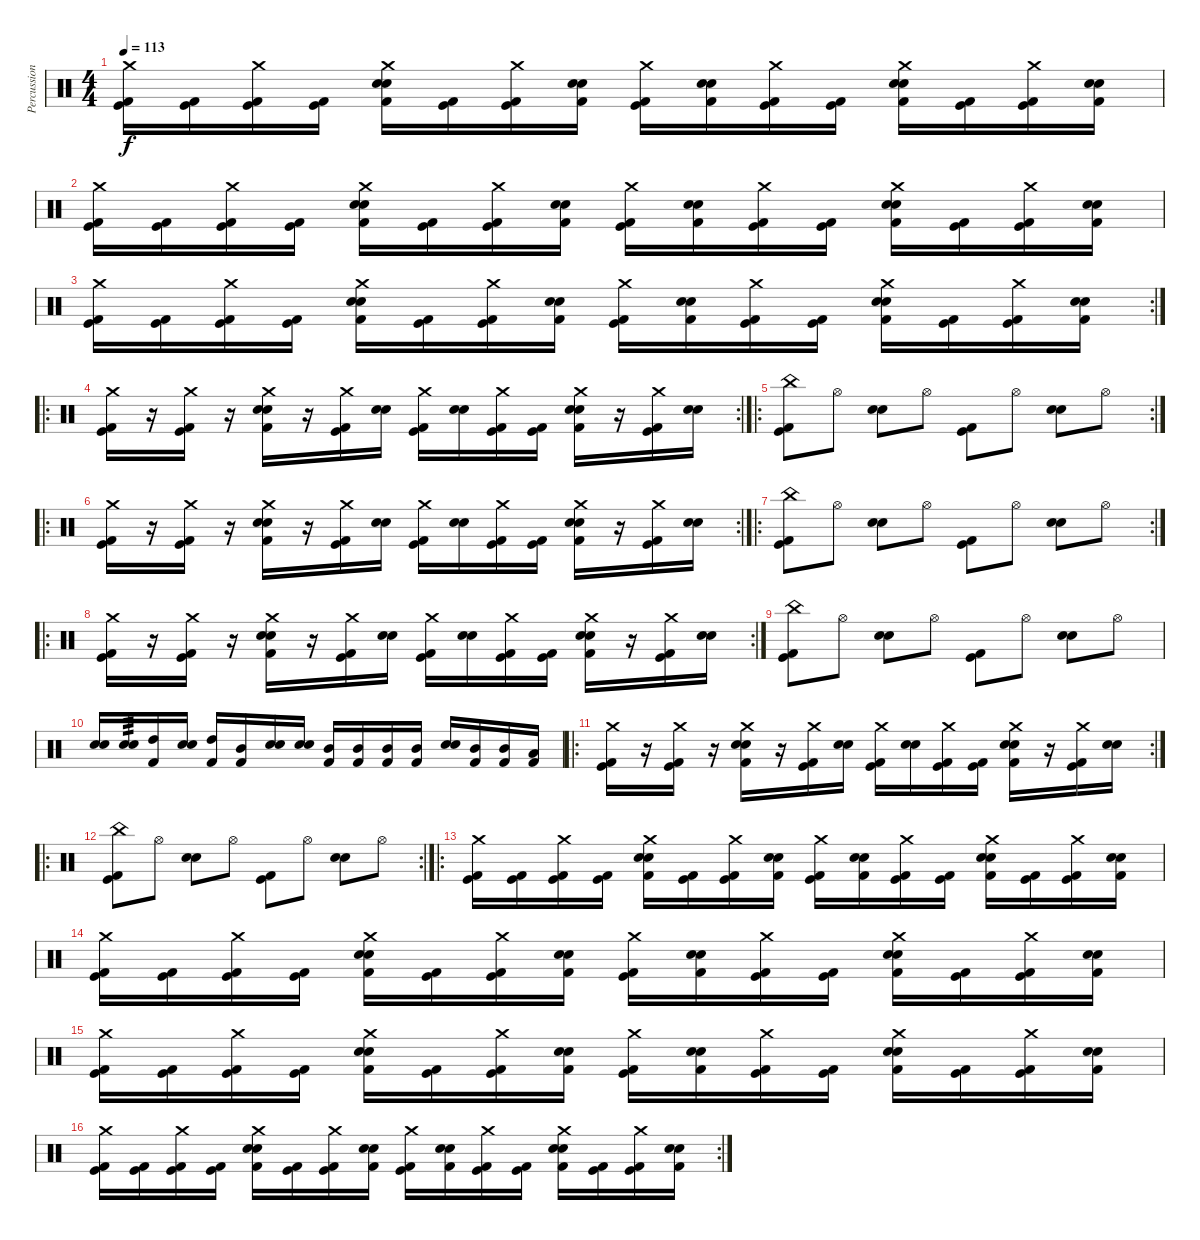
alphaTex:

\track ("Percussion" "Percussion") {instrument percussion}
\staff {score}
\articulation defaults
\ts (4 4)
\tempo 113
\clef neutral
\ks c
("Kick (hit)" "Kick (hit) 2" "Crash medium (hit)").16{dy f} ("Kick (hit)" "Kick (hit) 2").16 ("Kick (hit)" "Kick (hit) 2" "Crash medium (hit)").16 ("Kick (hit)" "Kick (hit) 2").16 ("Snare (hit) 2" "Kick (hit) 2" "Electric Snare (hit)" "Crash medium (hit)").16 ("Kick (hit)" "Kick (hit) 2").16 ("Kick (hit)" "Kick (hit) 2" "Crash medium (hit)").16 ("Snare (hit) 2" "Kick (hit) 2" "Electric Snare (hit)").16 ("Kick (hit)" "Kick (hit) 2" "Crash medium (hit)").16 ("Snare (hit) 2" "Kick (hit) 2" "Electric Snare (hit)").16 ("Kick (hit)" "Kick (hit) 2" "Crash medium (hit)").16 ("Kick (hit)" "Kick (hit) 2").16 ("Snare (hit) 2" "Kick (hit) 2" "Electric Snare (hit)" "Crash medium (hit)").16 ("Kick (hit)" "Kick (hit) 2").16 ("Kick (hit)" "Kick (hit) 2" "Crash medium (hit)").16 ("Snare (hit) 2" "Kick (hit) 2" "Electric Snare (hit)").16 |
("Kick (hit)" "Kick (hit) 2" "Crash medium (hit)").16 ("Kick (hit)" "Kick (hit) 2").16 ("Kick (hit)" "Kick (hit) 2" "Crash medium (hit)").16 ("Kick (hit)" "Kick (hit) 2").16 ("Snare (hit) 2" "Kick (hit) 2" "Electric Snare (hit)" "Crash medium (hit)").16 ("Kick (hit)" "Kick (hit) 2").16 ("Kick (hit)" "Kick (hit) 2" "Crash medium (hit)").16 ("Snare (hit) 2" "Kick (hit) 2" "Electric Snare (hit)").16 ("Kick (hit)" "Kick (hit) 2" "Crash medium (hit)").16 ("Snare (hit) 2" "Kick (hit) 2" "Electric Snare (hit)").16 ("Kick (hit)" "Kick (hit) 2" "Crash medium (hit)").16 ("Kick (hit)" "Kick (hit) 2").16 ("Snare (hit) 2" "Kick (hit) 2" "Electric Snare (hit)" "Crash medium (hit)").16 ("Kick (hit)" "Kick (hit) 2").16 ("Kick (hit)" "Kick (hit) 2" "Crash medium (hit)").16 ("Snare (hit) 2" "Kick (hit) 2" "Electric Snare (hit)").16 |
\rc 2
("Kick (hit)" "Kick (hit) 2" "Crash medium (hit)").16 ("Kick (hit)" "Kick (hit) 2").16 ("Kick (hit)" "Kick (hit) 2" "Crash medium (hit)").16 ("Kick (hit)" "Kick (hit) 2").16 ("Snare (hit) 2" "Kick (hit) 2" "Electric Snare (hit)" "Crash medium (hit)").16 ("Kick (hit)" "Kick (hit) 2").16 ("Kick (hit)" "Kick (hit) 2" "Crash medium (hit)").16 ("Snare (hit) 2" "Kick (hit) 2" "Electric Snare (hit)").16 ("Kick (hit)" "Kick (hit) 2" "Crash medium (hit)").16 ("Snare (hit) 2" "Kick (hit) 2" "Electric Snare (hit)").16 ("Kick (hit)" "Kick (hit) 2" "Crash medium (hit)").16 ("Kick (hit)" "Kick (hit) 2").16 ("Snare (hit) 2" "Kick (hit) 2" "Electric Snare (hit)" "Crash medium (hit)").16 ("Kick (hit)" "Kick (hit) 2").16 ("Kick (hit)" "Kick (hit) 2" "Crash medium (hit)").16 ("Snare (hit) 2" "Kick (hit) 2" "Electric Snare (hit)").16 |
\ro
\rc 2
("Kick (hit) 2" "Kick (hit)" "Crash medium (hit)").16 r.16 ("Kick (hit) 2" "Kick (hit)" "Crash medium (hit)").16 r.16 ("Snare (hit) 2" "Kick (hit) 2" "Electric Snare (hit)" "Crash medium (hit)").16 r.16 ("Kick (hit)" "Kick (hit) 2" "Crash medium (hit)").16 ("Snare (hit) 2" "Electric Snare (hit)").16 ("Kick (hit)" "Kick (hit) 2" "Crash medium (hit)").16 ("Snare (hit) 2" "Electric Snare (hit)").16 ("Kick (hit)" "Kick (hit) 2" "Crash medium (hit)").16 ("Kick (hit)" "Kick (hit) 2").16 ("Snare (hit) 2" "Kick (hit) 2" "Electric Snare (hit)" "Crash medium (hit)").16 r.16 ("Kick (hit)" "Kick (hit) 2" "Crash medium (hit)").16 ("Snare (hit) 2" "Electric Snare (hit)").16 |
\ro
\rc 2
("China (hit)" "Kick (hit) 2" "Kick (hit)").8 "Hi-Hat (open)".8 ("Electric Snare (hit)" "Snare (hit) 2").8 "Hi-Hat (open)".8 ("Kick (hit)" "Kick (hit) 2").8 "Hi-Hat (open)".8 ("Electric Snare (hit)" "Snare (hit) 2").8 "Hi-Hat (open)".8 |
\ro
\rc 2
("Kick (hit) 2" "Kick (hit)" "Crash medium (hit)").16 r.16 ("Kick (hit) 2" "Kick (hit)" "Crash medium (hit)").16 r.16 ("Snare (hit) 2" "Kick (hit) 2" "Electric Snare (hit)" "Crash medium (hit)").16 r.16 ("Kick (hit)" "Kick (hit) 2" "Crash medium (hit)").16 ("Snare (hit) 2" "Electric Snare (hit)").16 ("Kick (hit)" "Kick (hit) 2" "Crash medium (hit)").16 ("Snare (hit) 2" "Electric Snare (hit)").16 ("Kick (hit)" "Kick (hit) 2" "Crash medium (hit)").16 ("Kick (hit)" "Kick (hit) 2").16 ("Snare (hit) 2" "Kick (hit) 2" "Electric Snare (hit)" "Crash medium (hit)").16 r.16 ("Kick (hit)" "Kick (hit) 2" "Crash medium (hit)").16 ("Snare (hit) 2" "Electric Snare (hit)").16 |
\ro
\rc 2
("China (hit)" "Kick (hit) 2" "Kick (hit)").8 "Hi-Hat (open)".8 ("Electric Snare (hit)" "Snare (hit) 2").8 "Hi-Hat (open)".8 ("Kick (hit)" "Kick (hit) 2").8 "Hi-Hat (open)".8 ("Electric Snare (hit)" "Snare (hit) 2").8 "Hi-Hat (open)".8 |
\ro
\rc 2
("Kick (hit) 2" "Kick (hit)" "Crash medium (hit)").16 r.16 ("Kick (hit) 2" "Kick (hit)" "Crash medium (hit)").16 r.16 ("Snare (hit) 2" "Kick (hit) 2" "Electric Snare (hit)" "Crash medium (hit)").16 r.16 ("Kick (hit)" "Kick (hit) 2" "Crash medium (hit)").16 ("Snare (hit) 2" "Electric Snare (hit)").16 ("Kick (hit)" "Kick (hit) 2" "Crash medium (hit)").16 ("Snare (hit) 2" "Electric Snare (hit)").16 ("Kick (hit)" "Kick (hit) 2" "Crash medium (hit)").16 ("Kick (hit)" "Kick (hit) 2").16 ("Snare (hit) 2" "Kick (hit) 2" "Electric Snare (hit)" "Crash medium (hit)").16 r.16 ("Kick (hit)" "Kick (hit) 2" "Crash medium (hit)").16 ("Snare (hit) 2" "Electric Snare (hit)").16 |
("China (hit)" "Kick (hit) 2" "Kick (hit)").8 "Hi-Hat (open)".8 ("Electric Snare (hit)" "Snare (hit) 2").8 "Hi-Hat (open)".8 ("Kick (hit)" "Kick (hit) 2").8 "Hi-Hat (open)".8 ("Electric Snare (hit)" "Snare (hit) 2").8 "Hi-Hat (open)".8 |
("Electric Snare (hit)" "Snare (hit) 2").16 ("Electric Snare (hit)" "Snare (hit) 2").16{tp 3} ("High Tom (hit)" "Kick (hit) 2").16 ("Electric Snare (hit)" "Snare (hit) 2").16 ("High Tom (hit)" "Kick (hit) 2").16 ("Mid Tom (hit)" "Kick (hit) 2").16 ("Electric Snare (hit)" "Snare (hit) 2").16 ("Electric Snare (hit)" "Snare (hit) 2").16 ("Mid Tom (hit)" "Kick (hit) 2").16 ("Mid Tom (hit)" "Kick (hit) 2").16 ("Mid Tom (hit)" "Kick (hit) 2").16 ("Mid Tom (hit)" "Kick (hit) 2").16 ("Electric Snare (hit)" "Snare (hit) 2").16 ("Mid Tom (hit)" "Kick (hit) 2").16 ("Mid Tom (hit)" "Kick (hit) 2").16 ("Low Tom (hit)" "Kick (hit) 2").16 |
\ro
\rc 2
("Kick (hit) 2" "Kick (hit)" "Crash medium (hit)").16 r.16 ("Kick (hit) 2" "Kick (hit)" "Crash medium (hit)").16 r.16 ("Snare (hit) 2" "Kick (hit) 2" "Electric Snare (hit)" "Crash medium (hit)").16 r.16 ("Kick (hit)" "Kick (hit) 2" "Crash medium (hit)").16 ("Snare (hit) 2" "Electric Snare (hit)").16 ("Kick (hit)" "Kick (hit) 2" "Crash medium (hit)").16 ("Snare (hit) 2" "Electric Snare (hit)").16 ("Kick (hit)" "Kick (hit) 2" "Crash medium (hit)").16 ("Kick (hit)" "Kick (hit) 2").16 ("Snare (hit) 2" "Kick (hit) 2" "Electric Snare (hit)" "Crash medium (hit)").16 r.16 ("Kick (hit)" "Kick (hit) 2" "Crash medium (hit)").16 ("Snare (hit) 2" "Electric Snare (hit)").16 |
\ro
\rc 2
("China (hit)" "Kick (hit)" "Kick (hit) 2").8 "Hi-Hat (open)".8 ("Electric Snare (hit)" "Snare (hit) 2").8 "Hi-Hat (open)".8 ("Kick (hit)" "Kick (hit) 2").8 "Hi-Hat (open)".8 ("Electric Snare (hit)" "Snare (hit) 2").8 "Hi-Hat (open)".8 |
\ro
("Kick (hit)" "Kick (hit) 2" "Crash medium (hit)").16 ("Kick (hit)" "Kick (hit) 2").16 ("Kick (hit)" "Kick (hit) 2" "Crash medium (hit)").16 ("Kick (hit)" "Kick (hit) 2").16 ("Snare (hit) 2" "Kick (hit) 2" "Electric Snare (hit)" "Crash medium (hit)").16 ("Kick (hit)" "Kick (hit) 2").16 ("Kick (hit)" "Kick (hit) 2" "Crash medium (hit)").16 ("Snare (hit) 2" "Kick (hit) 2" "Electric Snare (hit)").16 ("Kick (hit)" "Kick (hit) 2" "Crash medium (hit)").16 ("Snare (hit) 2" "Kick (hit) 2" "Electric Snare (hit)").16 ("Kick (hit)" "Kick (hit) 2" "Crash medium (hit)").16 ("Kick (hit)" "Kick (hit) 2").16 ("Snare (hit) 2" "Kick (hit) 2" "Electric Snare (hit)" "Crash medium (hit)").16 ("Kick (hit)" "Kick (hit) 2").16 ("Kick (hit)" "Kick (hit) 2" "Crash medium (hit)").16 ("Snare (hit) 2" "Kick (hit) 2" "Electric Snare (hit)").16 |
("Kick (hit)" "Kick (hit) 2" "Crash medium (hit)").16 ("Kick (hit)" "Kick (hit) 2").16 ("Kick (hit)" "Kick (hit) 2" "Crash medium (hit)").16 ("Kick (hit)" "Kick (hit) 2").16 ("Snare (hit) 2" "Kick (hit) 2" "Electric Snare (hit)" "Crash medium (hit)").16 ("Kick (hit)" "Kick (hit) 2").16 ("Kick (hit)" "Kick (hit) 2" "Crash medium (hit)").16 ("Snare (hit) 2" "Kick (hit) 2" "Electric Snare (hit)").16 ("Kick (hit)" "Kick (hit) 2" "Crash medium (hit)").16 ("Snare (hit) 2" "Kick (hit) 2" "Electric Snare (hit)").16 ("Kick (hit)" "Kick (hit) 2" "Crash medium (hit)").16 ("Kick (hit)" "Kick (hit) 2").16 ("Snare (hit) 2" "Kick (hit) 2" "Electric Snare (hit)" "Crash medium (hit)").16 ("Kick (hit)" "Kick (hit) 2").16 ("Kick (hit)" "Kick (hit) 2" "Crash medium (hit)").16 ("Snare (hit) 2" "Kick (hit) 2" "Electric Snare (hit)").16 |
("Kick (hit)" "Kick (hit) 2" "Crash medium (hit)").16 ("Kick (hit)" "Kick (hit) 2").16 ("Kick (hit)" "Kick (hit) 2" "Crash medium (hit)").16 ("Kick (hit)" "Kick (hit) 2").16 ("Snare (hit) 2" "Kick (hit) 2" "Electric Snare (hit)" "Crash medium (hit)").16 ("Kick (hit)" "Kick (hit) 2").16 ("Kick (hit)" "Kick (hit) 2" "Crash medium (hit)").16 ("Snare (hit) 2" "Kick (hit) 2" "Electric Snare (hit)").16 ("Kick (hit)" "Kick (hit) 2" "Crash medium (hit)").16 ("Snare (hit) 2" "Kick (hit) 2" "Electric Snare (hit)").16 ("Kick (hit)" "Kick (hit) 2" "Crash medium (hit)").16 ("Kick (hit)" "Kick (hit) 2").16 ("Snare (hit) 2" "Kick (hit) 2" "Electric Snare (hit)" "Crash medium (hit)").16 ("Kick (hit)" "Kick (hit) 2").16 ("Kick (hit)" "Kick (hit) 2" "Crash medium (hit)").16 ("Snare (hit) 2" "Kick (hit) 2" "Electric Snare (hit)").16 |
\rc 2
("Kick (hit)" "Kick (hit) 2" "Crash medium (hit)").16 ("Kick (hit)" "Kick (hit) 2").16 ("Kick (hit)" "Kick (hit) 2" "Crash medium (hit)").16 ("Kick (hit)" "Kick (hit) 2").16 ("Snare (hit) 2" "Kick (hit) 2" "Electric Snare (hit)" "Crash medium (hit)").16 ("Kick (hit)" "Kick (hit) 2").16 ("Kick (hit)" "Kick (hit) 2" "Crash medium (hit)").16 ("Snare (hit) 2" "Kick (hit) 2" "Electric Snare (hit)").16 ("Kick (hit)" "Kick (hit) 2" "Crash medium (hit)").16 ("Snare (hit) 2" "Kick (hit) 2" "Electric Snare (hit)").16 ("Kick (hit)" "Kick (hit) 2" "Crash medium (hit)").16 ("Kick (hit)" "Kick (hit) 2").16 ("Snare (hit) 2" "Kick (hit) 2" "Electric Snare (hit)" "Crash medium (hit)").16 ("Kick (hit)" "Kick (hit) 2").16 ("Kick (hit)" "Kick (hit) 2" "Crash medium (hit)").16 ("Snare (hit) 2" "Kick (hit) 2" "Electric Snare (hit)").16
